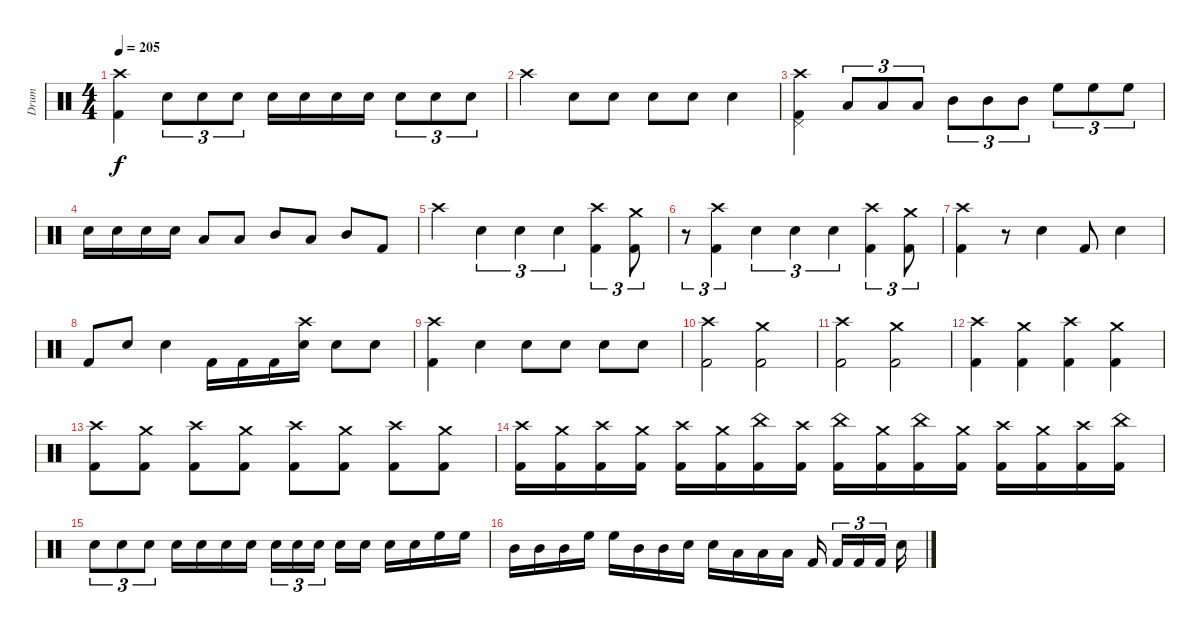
\track ("Drum" "Drum") {instrument percussion}
\staff {score}
\articulation defaults
\ts (4 4)
\tempo 205
\clef neutral
\ks c
("Crash high (hit)" "Kick (hit) 2").4{dy f} "Electric Snare (hit)".8{tu (3 2)} "Electric Snare (hit)".8{tu (3 2)} "Electric Snare (hit)".8{tu (3 2)} "Electric Snare (hit)".16 "Electric Snare (hit)".16 "Electric Snare (hit)".16 "Electric Snare (hit)".16 "Electric Snare (hit)".8{tu (3 2)} "Electric Snare (hit)".8{tu (3 2)} "Electric Snare (hit)".8{tu (3 2)} |
"Crash high (hit)".4 "Electric Snare (hit)".8 "Electric Snare (hit)".8 "Electric Snare (hit)".8 "Electric Snare (hit)".8 "Electric Snare (hit)".4 |
("Kick (hit) 2" "Crash high (hit)" "Pedal Hi-Hat (hit)").4 "Low Tom (hit)".8{tu (3 2)} "Low Tom (hit)".8{tu (3 2)} "Low Tom (hit)".8{tu (3 2)} "Mid Tom (hit)".8{tu (3 2)} "Mid Tom (hit)".8{tu (3 2)} "Mid Tom (hit)".8{tu (3 2)} "High Floor Tom (hit)".8{tu (3 2)} "High Floor Tom (hit)".8{tu (3 2)} "High Floor Tom (hit)".8{tu (3 2)} |
"Electric Snare (hit)".16 "Electric Snare (hit)".16 "Electric Snare (hit)".16 "Electric Snare (hit)".16 "Low Tom (hit)".8 "Low Tom (hit)".8 "Mid Tom (hit)".8 "Low Tom (hit)".8 "Mid Tom (hit)".8 "Kick (hit) 2".8 |
"Crash high (hit)".4 "Electric Snare (hit)".4{tu (3 2)} "Electric Snare (hit)".4{tu (3 2)} "Electric Snare (hit)".4{tu (3 2)} ("Crash high (hit)" "Kick (hit) 2").4{tu (3 2)} ("Crash medium (hit)" "Kick (hit) 2").8{tu (3 2)} |
r.8{tu (3 2)} ("Kick (hit) 2" "Crash high (hit)").4{tu (3 2)} "Electric Snare (hit)".4{tu (3 2)} "Electric Snare (hit)".4{tu (3 2)} "Electric Snare (hit)".4{tu (3 2)} ("Crash high (hit)" "Kick (hit) 2").4{tu (3 2)} ("Crash medium (hit)" "Kick (hit) 2").8{tu (3 2)} |
("Crash high (hit)" "Kick (hit) 2").4 r.8 "Electric Snare (hit)".4 "Kick (hit) 2".8 "Electric Snare (hit)".4 |
"Kick (hit) 2".8 "Electric Snare (hit)".8 "Electric Snare (hit)".4 "Kick (hit) 2".16 "Kick (hit) 2".16 "Kick (hit) 2".16 ("Electric Snare (hit)" "Crash high (hit)").16 "Electric Snare (hit)".8 "Electric Snare (hit)".8 |
("Crash high (hit)" "Kick (hit) 2").4 "Electric Snare (hit)".4 "Electric Snare (hit)".8 "Electric Snare (hit)".8 "Electric Snare (hit)".8 "Electric Snare (hit)".8 |
("Crash high (hit)" "Kick (hit) 2").2 ("Crash medium (hit)" "Kick (hit) 2").2 |
("Crash high (hit)" "Kick (hit) 2").2 ("Crash medium (hit)" "Kick (hit) 2").2 |
("Crash high (hit)" "Kick (hit) 2").4 ("Crash medium (hit)" "Kick (hit) 2").4 ("Crash high (hit)" "Kick (hit) 2").4 ("Crash medium (hit)" "Kick (hit) 2").4 |
("Crash high (hit)" "Kick (hit) 2").8 ("Crash medium (hit)" "Kick (hit) 2").8 ("Crash high (hit)" "Kick (hit) 2").8 ("Crash medium (hit)" "Kick (hit) 2").8 ("Crash high (hit)" "Kick (hit) 2").8 ("Crash medium (hit)" "Kick (hit) 2").8 ("Crash high (hit)" "Kick (hit) 2").8 ("Crash medium (hit)" "Kick (hit) 2").8 |
("Crash high (hit)" "Kick (hit) 2").16 ("Crash medium (hit)" "Kick (hit) 2").16 ("Crash high (hit)" "Kick (hit) 2").16 ("Crash medium (hit)" "Kick (hit) 2").16 ("Crash high (hit)" "Kick (hit) 2").16 ("Crash medium (hit)" "Kick (hit) 2").16 ("China (hit)" "Kick (hit) 2").16 ("Crash high (hit)" "Kick (hit) 2").16 ("China (hit)" "Kick (hit) 2").16 ("Crash medium (hit)" "Kick (hit) 2").16 ("China (hit)" "Kick (hit) 2").16 ("Crash medium (hit)" "Kick (hit) 2").16 ("Crash high (hit)" "Kick (hit) 2").16 ("Crash medium (hit)" "Kick (hit) 2").16 ("Crash high (hit)" "Kick (hit) 2").16 ("China (hit)" "Kick (hit) 2").16 |
"Electric Snare (hit)".8{tu (3 2)} "Electric Snare (hit)".8{tu (3 2)} "Electric Snare (hit)".8{tu (3 2)} "Electric Snare (hit)".16 "Electric Snare (hit)".16 "Electric Snare (hit)".16 "Electric Snare (hit)".16 "Electric Snare (hit)".16{tu (3 2)} "Electric Snare (hit)".16{tu (3 2)} "Electric Snare (hit)".16{tu (3 2)} "Electric Snare (hit)".16 "Electric Snare (hit)".16 "Electric Snare (hit)".16 "Electric Snare (hit)".16 "High Floor Tom (hit)".16 "High Floor Tom (hit)".16 |
"Mid Tom (hit)".16 "Mid Tom (hit)".16 "Mid Tom (hit)".16 "High Floor Tom (hit)".16 "High Floor Tom (hit)".16 "Mid Tom (hit)".16 "Mid Tom (hit)".16 "Electric Snare (hit)".16 "Electric Snare (hit)".16 "Low Tom (hit)".16 "Low Tom (hit)".16 "Low Tom (hit)".16 "Kick (hit) 2".16 "Kick (hit) 2".16{tu (3 2)} "Kick (hit) 2".16{tu (3 2)} "Kick (hit) 2".16{tu (3 2)} "Electric Snare (hit)".16
